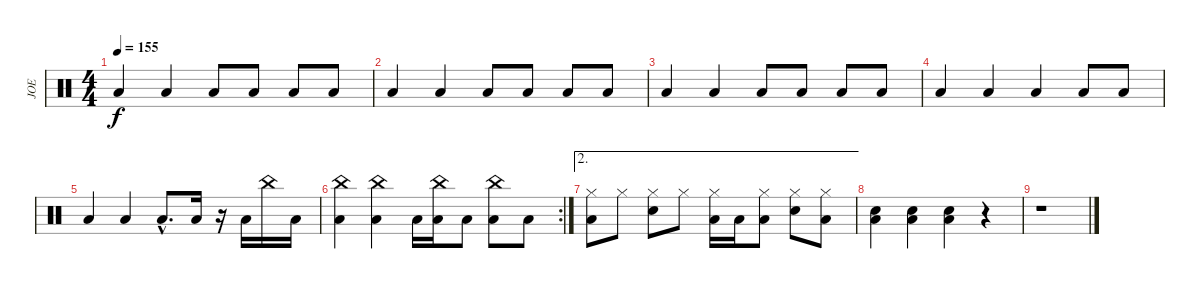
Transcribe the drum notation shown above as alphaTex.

\track ("JOE" "JOE") {instrument percussion}
\staff {score}
\articulation defaults
\ts (4 4)
\tempo 155
\clef neutral
\ks c "Low Floor Tom (hit)".4{dy f} "Low Floor Tom (hit)".4 "Low Floor Tom (hit)".8 "Low Floor Tom (hit)".8 "Low Floor Tom (hit)".8 "Low Floor Tom (hit)".8
|
"Low Floor Tom (hit)".4 "Low Floor Tom (hit)".4 "Low Floor Tom (hit)".8 "Low Floor Tom (hit)".8 "Low Floor Tom (hit)".8 "Low Floor Tom (hit)".8 |
"Low Floor Tom (hit)".4 "Low Floor Tom (hit)".4 "Low Floor Tom (hit)".8 "Low Floor Tom (hit)".8 "Low Floor Tom (hit)".8 "Low Floor Tom (hit)".8 |
"Low Floor Tom (hit)".4 "Low Floor Tom (hit)".4 "Low Floor Tom (hit)".4 "Low Floor Tom (hit)".8 "Low Floor Tom (hit)".8 |
"Low Floor Tom (hit)".4 "Low Floor Tom (hit)".4 "Low Floor Tom (hit)"{hac}.8{d} "Low Floor Tom (hit)".16 r.16 "Low Floor Tom (hit)".16 "China (hit)".16 "Low Floor Tom (hit)".16 |
\rc 2
("China (hit)" "Low Floor Tom (hit)").4 ("China (hit)" "Low Floor Tom (hit)").4 "Low Floor Tom (hit)".16 ("China (hit)" "Low Floor Tom (hit)").16 "Low Floor Tom (hit)".8 ("China (hit)" "Low Floor Tom (hit)").8 "Low Floor Tom (hit)".8 |
\ae 2
("Hi-Hat (closed)" "Low Floor Tom (hit)").8 "Hi-Hat (closed)".8 ("Hi-Hat (closed)" "Electric Snare (hit)").8 "Hi-Hat (closed)".8 ("Hi-Hat (closed)" "Low Floor Tom (hit)").16 "Low Floor Tom (hit)".16 ("Hi-Hat (closed)" "Low Floor Tom (hit)").8 ("Hi-Hat (closed)" "Electric Snare (hit)").8 ("Hi-Hat (closed)" "Low Floor Tom (hit)").8 |
("Electric Snare (hit)" "Low Floor Tom (hit)").4 ("Electric Snare (hit)" "Low Floor Tom (hit)").4 ("Electric Snare (hit)" "Low Floor Tom (hit)").4 r.4 |
r.1
